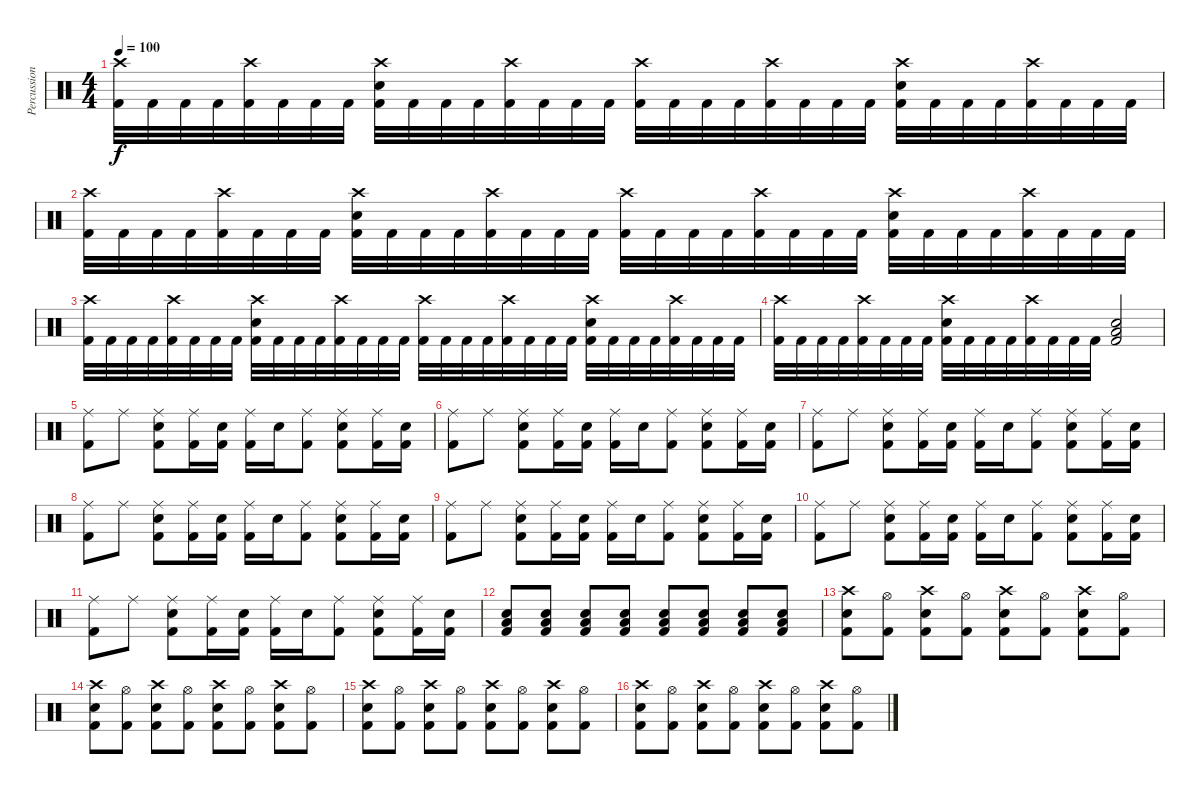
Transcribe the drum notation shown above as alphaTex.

\track ("Percussion" "Percussion") {instrument percussion}
\staff {score}
\articulation defaults
\ts (4 4)
\tempo 100
\clef neutral
\ks c
("Crash high (hit)" "Kick (hit) 2").32{dy f} "Kick (hit) 2".32 "Kick (hit) 2".32 "Kick (hit) 2".32 ("Crash high (hit)" "Kick (hit) 2").32 "Kick (hit) 2".32 "Kick (hit) 2".32 "Kick (hit) 2".32 ("Electric Snare (hit)" "Crash high (hit)" "Kick (hit) 2").32 "Kick (hit) 2".32 "Kick (hit) 2".32 "Kick (hit) 2".32 ("Crash high (hit)" "Kick (hit) 2").32 "Kick (hit) 2".32 "Kick (hit) 2".32 "Kick (hit) 2".32 ("Crash high (hit)" "Kick (hit) 2").32 "Kick (hit) 2".32 "Kick (hit) 2".32 "Kick (hit) 2".32 ("Crash high (hit)" "Kick (hit) 2").32 "Kick (hit) 2".32 "Kick (hit) 2".32 "Kick (hit) 2".32 ("Electric Snare (hit)" "Crash high (hit)" "Kick (hit) 2").32 "Kick (hit) 2".32 "Kick (hit) 2".32 "Kick (hit) 2".32 ("Crash high (hit)" "Kick (hit) 2").32 "Kick (hit) 2".32 "Kick (hit) 2".32 "Kick (hit) 2".32 |
("Crash high (hit)" "Kick (hit) 2").32 "Kick (hit) 2".32 "Kick (hit) 2".32 "Kick (hit) 2".32 ("Crash high (hit)" "Kick (hit) 2").32 "Kick (hit) 2".32 "Kick (hit) 2".32 "Kick (hit) 2".32 ("Electric Snare (hit)" "Crash high (hit)" "Kick (hit) 2").32 "Kick (hit) 2".32 "Kick (hit) 2".32 "Kick (hit) 2".32 ("Crash high (hit)" "Kick (hit) 2").32 "Kick (hit) 2".32 "Kick (hit) 2".32 "Kick (hit) 2".32 ("Crash high (hit)" "Kick (hit) 2").32 "Kick (hit) 2".32 "Kick (hit) 2".32 "Kick (hit) 2".32 ("Crash high (hit)" "Kick (hit) 2").32 "Kick (hit) 2".32 "Kick (hit) 2".32 "Kick (hit) 2".32 ("Electric Snare (hit)" "Crash high (hit)" "Kick (hit) 2").32 "Kick (hit) 2".32 "Kick (hit) 2".32 "Kick (hit) 2".32 ("Crash high (hit)" "Kick (hit) 2").32 "Kick (hit) 2".32 "Kick (hit) 2".32 "Kick (hit) 2".32 |
("Crash high (hit)" "Kick (hit) 2").32 "Kick (hit) 2".32 "Kick (hit) 2".32 "Kick (hit) 2".32 ("Crash high (hit)" "Kick (hit) 2").32 "Kick (hit) 2".32 "Kick (hit) 2".32 "Kick (hit) 2".32 ("Electric Snare (hit)" "Crash high (hit)" "Kick (hit) 2").32 "Kick (hit) 2".32 "Kick (hit) 2".32 "Kick (hit) 2".32 ("Crash high (hit)" "Kick (hit) 2").32 "Kick (hit) 2".32 "Kick (hit) 2".32 "Kick (hit) 2".32 ("Crash high (hit)" "Kick (hit) 2").32 "Kick (hit) 2".32 "Kick (hit) 2".32 "Kick (hit) 2".32 ("Crash high (hit)" "Kick (hit) 2").32 "Kick (hit) 2".32 "Kick (hit) 2".32 "Kick (hit) 2".32 ("Electric Snare (hit)" "Crash high (hit)" "Kick (hit) 2").32 "Kick (hit) 2".32 "Kick (hit) 2".32 "Kick (hit) 2".32 ("Crash high (hit)" "Kick (hit) 2").32 "Kick (hit) 2".32 "Kick (hit) 2".32 "Kick (hit) 2".32 |
("Crash high (hit)" "Kick (hit) 2").32 "Kick (hit) 2".32 "Kick (hit) 2".32 "Kick (hit) 2".32 ("Crash high (hit)" "Kick (hit) 2").32 "Kick (hit) 2".32 "Kick (hit) 2".32 "Kick (hit) 2".32 ("Electric Snare (hit)" "Crash high (hit)" "Kick (hit) 2").32 "Kick (hit) 2".32 "Kick (hit) 2".32 "Kick (hit) 2".32 ("Crash high (hit)" "Kick (hit) 2").32 "Kick (hit) 2".32 "Kick (hit) 2".32 "Kick (hit) 2".32 ("Low Floor Tom (hit)" "Electric Snare (hit)" "Kick (hit) 2").2 |
("Ride (middle)" "Kick (hit) 2").8 "Ride (middle)".8 ("Electric Snare (hit)" "Ride (middle)" "Kick (hit) 2").8 ("Ride (middle)" "Kick (hit) 2").16 ("Electric Snare (hit)" "Kick (hit) 2").16 ("Ride (middle)" "Kick (hit) 2").16 "Electric Snare (hit)".16 ("Ride (middle)" "Kick (hit) 2").8 ("Electric Snare (hit)" "Ride (middle)" "Kick (hit) 2").8 ("Ride (middle)" "Kick (hit) 2").16 ("Electric Snare (hit)" "Kick (hit) 2").16 |
("Ride (middle)" "Kick (hit) 2").8 "Ride (middle)".8 ("Electric Snare (hit)" "Ride (middle)" "Kick (hit) 2").8 ("Ride (middle)" "Kick (hit) 2").16 ("Electric Snare (hit)" "Kick (hit) 2").16 ("Ride (middle)" "Kick (hit) 2").16 "Electric Snare (hit)".16 ("Ride (middle)" "Kick (hit) 2").8 ("Electric Snare (hit)" "Ride (middle)" "Kick (hit) 2").8 ("Ride (middle)" "Kick (hit) 2").16 ("Electric Snare (hit)" "Kick (hit) 2").16 |
("Ride (middle)" "Kick (hit) 2").8 "Ride (middle)".8 ("Electric Snare (hit)" "Ride (middle)" "Kick (hit) 2").8 ("Ride (middle)" "Kick (hit) 2").16 ("Electric Snare (hit)" "Kick (hit) 2").16 ("Ride (middle)" "Kick (hit) 2").16 "Electric Snare (hit)".16 ("Ride (middle)" "Kick (hit) 2").8 ("Electric Snare (hit)" "Ride (middle)" "Kick (hit) 2").8 ("Ride (middle)" "Kick (hit) 2").16 ("Electric Snare (hit)" "Kick (hit) 2").16 |
("Ride (middle)" "Kick (hit) 2").8 "Ride (middle)".8 ("Electric Snare (hit)" "Ride (middle)" "Kick (hit) 2").8 ("Ride (middle)" "Kick (hit) 2").16 ("Electric Snare (hit)" "Kick (hit) 2").16 ("Ride (middle)" "Kick (hit) 2").16 "Electric Snare (hit)".16 ("Ride (middle)" "Kick (hit) 2").8 ("Electric Snare (hit)" "Ride (middle)" "Kick (hit) 2").8 ("Ride (middle)" "Kick (hit) 2").16 ("Electric Snare (hit)" "Kick (hit) 2").16 |
("Ride (middle)" "Kick (hit) 2").8 "Ride (middle)".8 ("Electric Snare (hit)" "Ride (middle)" "Kick (hit) 2").8 ("Ride (middle)" "Kick (hit) 2").16 ("Electric Snare (hit)" "Kick (hit) 2").16 ("Ride (middle)" "Kick (hit) 2").16 "Electric Snare (hit)".16 ("Ride (middle)" "Kick (hit) 2").8 ("Electric Snare (hit)" "Ride (middle)" "Kick (hit) 2").8 ("Ride (middle)" "Kick (hit) 2").16 ("Electric Snare (hit)" "Kick (hit) 2").16 |
("Ride (middle)" "Kick (hit) 2").8 "Ride (middle)".8 ("Electric Snare (hit)" "Ride (middle)" "Kick (hit) 2").8 ("Ride (middle)" "Kick (hit) 2").16 ("Electric Snare (hit)" "Kick (hit) 2").16 ("Ride (middle)" "Kick (hit) 2").16 "Electric Snare (hit)".16 ("Ride (middle)" "Kick (hit) 2").8 ("Electric Snare (hit)" "Ride (middle)" "Kick (hit) 2").8 ("Ride (middle)" "Kick (hit) 2").16 ("Electric Snare (hit)" "Kick (hit) 2").16 |
("Ride (middle)" "Kick (hit) 2").8 "Ride (middle)".8 ("Electric Snare (hit)" "Ride (middle)" "Kick (hit) 2").8 ("Ride (middle)" "Kick (hit) 2").16 ("Electric Snare (hit)" "Kick (hit) 2").16 ("Ride (middle)" "Kick (hit) 2").16 "Electric Snare (hit)".16 ("Ride (middle)" "Kick (hit) 2").8 ("Electric Snare (hit)" "Ride (middle)" "Kick (hit) 2").8 ("Ride (middle)" "Kick (hit) 2").16 ("Electric Snare (hit)" "Kick (hit) 2").16 |
("Low Floor Tom (hit)" "Electric Snare (hit)" "Kick (hit) 2").8 ("Low Floor Tom (hit)" "Electric Snare (hit)" "Kick (hit) 2").8 ("Low Floor Tom (hit)" "Electric Snare (hit)" "Kick (hit) 2").8 ("Low Floor Tom (hit)" "Electric Snare (hit)" "Kick (hit) 2").8 ("Low Floor Tom (hit)" "Electric Snare (hit)" "Kick (hit) 2").8 ("Low Floor Tom (hit)" "Electric Snare (hit)" "Kick (hit) 2").8 ("Low Floor Tom (hit)" "Electric Snare (hit)" "Kick (hit) 2").8 ("Low Floor Tom (hit)" "Electric Snare (hit)" "Kick (hit) 2").8 |
("Crash high (hit)" "Electric Snare (hit)" "Kick (hit) 2").8 ("Hi-Hat (open)" "Kick (hit) 2").8 ("Crash high (hit)" "Electric Snare (hit)" "Kick (hit) 2").8 ("Hi-Hat (open)" "Kick (hit) 2").8 ("Crash high (hit)" "Electric Snare (hit)" "Kick (hit) 2").8 ("Hi-Hat (open)" "Kick (hit) 2").8 ("Crash high (hit)" "Electric Snare (hit)" "Kick (hit) 2").8 ("Hi-Hat (open)" "Kick (hit) 2").8 |
("Crash high (hit)" "Electric Snare (hit)" "Kick (hit) 2").8 ("Hi-Hat (open)" "Kick (hit) 2").8 ("Crash high (hit)" "Electric Snare (hit)" "Kick (hit) 2").8 ("Hi-Hat (open)" "Kick (hit) 2").8 ("Crash high (hit)" "Electric Snare (hit)" "Kick (hit) 2").8 ("Hi-Hat (open)" "Kick (hit) 2").8 ("Crash high (hit)" "Electric Snare (hit)" "Kick (hit) 2").8 ("Hi-Hat (open)" "Kick (hit) 2").8 |
("Crash high (hit)" "Electric Snare (hit)" "Kick (hit) 2").8 ("Hi-Hat (open)" "Kick (hit) 2").8 ("Crash high (hit)" "Electric Snare (hit)" "Kick (hit) 2").8 ("Hi-Hat (open)" "Kick (hit) 2").8 ("Crash high (hit)" "Electric Snare (hit)" "Kick (hit) 2").8 ("Hi-Hat (open)" "Kick (hit) 2").8 ("Crash high (hit)" "Electric Snare (hit)" "Kick (hit) 2").8 ("Hi-Hat (open)" "Kick (hit) 2").8 |
("Crash high (hit)" "Electric Snare (hit)" "Kick (hit) 2").8 ("Hi-Hat (open)" "Kick (hit) 2").8 ("Crash high (hit)" "Electric Snare (hit)" "Kick (hit) 2").8 ("Hi-Hat (open)" "Kick (hit) 2").8 ("Crash high (hit)" "Electric Snare (hit)" "Kick (hit) 2").8 ("Hi-Hat (open)" "Kick (hit) 2").8 ("Crash high (hit)" "Electric Snare (hit)" "Kick (hit) 2").8 ("Hi-Hat (open)" "Kick (hit) 2").8
